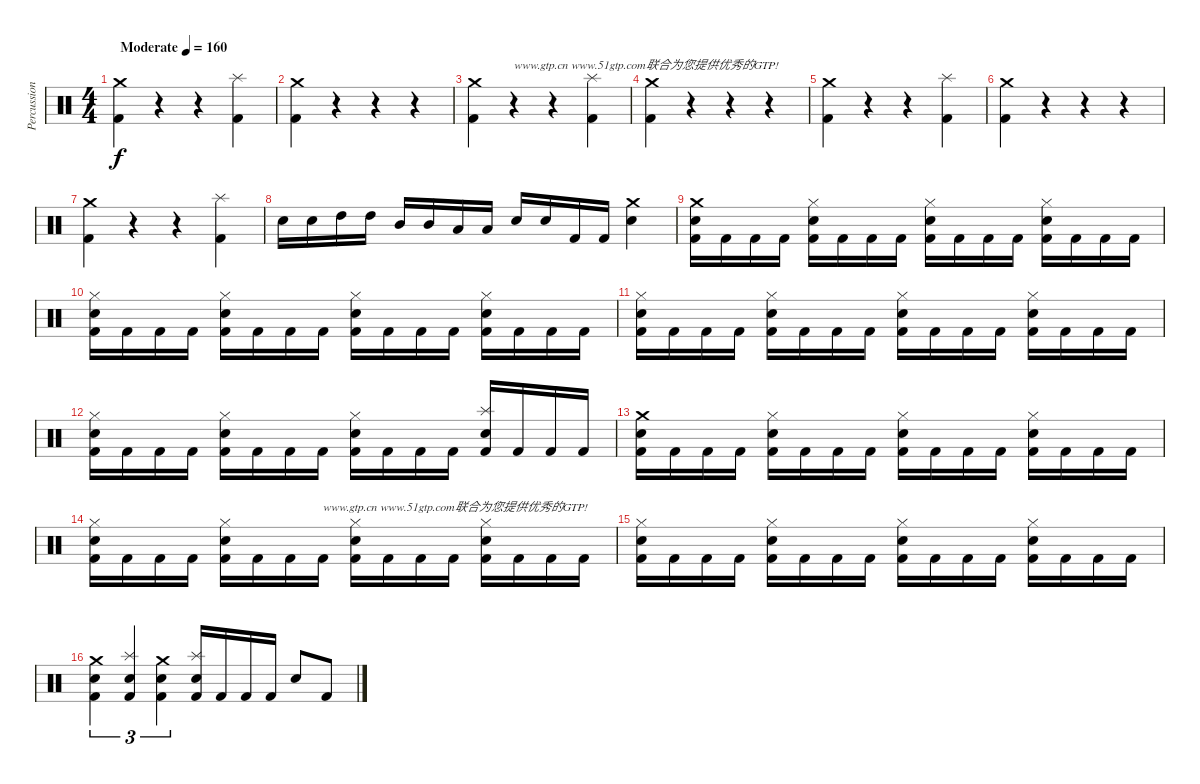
\track ("Percussion" "Percussion") {instrument percussion}
\staff {score}
\articulation defaults
\ts (4 4)
\tempo (160 "Moderate")
\clef neutral
\ks c
("Crash medium (hit)" "Kick (hit) 2").4{dy f} r.4 r.4 ("Splash (hit)" "Kick (hit) 2").4 |
("Crash medium (hit)" "Kick (hit) 2").4 r.4 r.4 r.4 |
("Crash medium (hit)" "Kick (hit) 2").4 r.4{txt "www.gtp.cn www.51gtp.com联合为您提供优秀的GTP!"} r.4 ("Splash (hit)" "Kick (hit) 2").4 |
("Crash medium (hit)" "Kick (hit) 2").4 r.4 r.4 r.4 |
("Crash medium (hit)" "Kick (hit) 2").4 r.4 r.4 ("Splash (hit)" "Kick (hit) 2").4 |
("Crash medium (hit)" "Kick (hit) 2").4 r.4 r.4 r.4 |
("Crash medium (hit)" "Kick (hit) 2").4 r.4 r.4 ("Splash (hit)" "Kick (hit) 2").4 |
"Electric Snare (hit)".16 "Electric Snare (hit)".16 "High Tom (hit)".16 "High Tom (hit)".16 "Mid Tom (hit)".16 "Mid Tom (hit)".16 "Low Tom (hit)".16 "Low Tom (hit)".16 "Electric Snare (hit)".16 "Electric Snare (hit)".16 "Kick (hit) 2".16 "Kick (hit) 2".16 ("Crash medium (hit)" "Electric Snare (hit)").4 |
("Crash medium (hit)" "Electric Snare (hit)" "Kick (hit) 2").16 "Kick (hit) 2".16 "Kick (hit) 2".16 "Kick (hit) 2".16 ("Hi-Hat (closed)" "Electric Snare (hit)" "Kick (hit) 2").16 "Kick (hit) 2".16 "Kick (hit) 2".16 "Kick (hit) 2".16 ("Hi-Hat (closed)" "Electric Snare (hit)" "Kick (hit) 2").16 "Kick (hit) 2".16 "Kick (hit) 2".16 "Kick (hit) 2".16 ("Hi-Hat (closed)" "Electric Snare (hit)" "Kick (hit) 2").16 "Kick (hit) 2".16 "Kick (hit) 2".16 "Kick (hit) 2".16 |
("Hi-Hat (closed)" "Electric Snare (hit)" "Kick (hit) 2").16 "Kick (hit) 2".16 "Kick (hit) 2".16 "Kick (hit) 2".16 ("Hi-Hat (closed)" "Electric Snare (hit)" "Kick (hit) 2").16 "Kick (hit) 2".16 "Kick (hit) 2".16 "Kick (hit) 2".16 ("Hi-Hat (closed)" "Electric Snare (hit)" "Kick (hit) 2").16 "Kick (hit) 2".16 "Kick (hit) 2".16 "Kick (hit) 2".16 ("Hi-Hat (closed)" "Electric Snare (hit)" "Kick (hit) 2").16 "Kick (hit) 2".16 "Kick (hit) 2".16 "Kick (hit) 2".16 |
("Hi-Hat (closed)" "Electric Snare (hit)" "Kick (hit) 2").16 "Kick (hit) 2".16 "Kick (hit) 2".16 "Kick (hit) 2".16 ("Hi-Hat (closed)" "Electric Snare (hit)" "Kick (hit) 2").16 "Kick (hit) 2".16 "Kick (hit) 2".16 "Kick (hit) 2".16 ("Hi-Hat (closed)" "Electric Snare (hit)" "Kick (hit) 2").16 "Kick (hit) 2".16 "Kick (hit) 2".16 "Kick (hit) 2".16 ("Hi-Hat (closed)" "Electric Snare (hit)" "Kick (hit) 2").16 "Kick (hit) 2".16 "Kick (hit) 2".16 "Kick (hit) 2".16 |
("Hi-Hat (closed)" "Electric Snare (hit)" "Kick (hit) 2").16 "Kick (hit) 2".16 "Kick (hit) 2".16 "Kick (hit) 2".16 ("Hi-Hat (closed)" "Electric Snare (hit)" "Kick (hit) 2").16 "Kick (hit) 2".16 "Kick (hit) 2".16 "Kick (hit) 2".16 ("Hi-Hat (closed)" "Electric Snare (hit)" "Kick (hit) 2").16 "Kick (hit) 2".16 "Kick (hit) 2".16 "Kick (hit) 2".16 ("Splash (hit)" "Electric Snare (hit)" "Kick (hit) 2").16 "Kick (hit) 2".16 "Kick (hit) 2".16 "Kick (hit) 2".16 |
("Crash medium (hit)" "Electric Snare (hit)" "Kick (hit) 2").16 "Kick (hit) 2".16 "Kick (hit) 2".16 "Kick (hit) 2".16 ("Hi-Hat (closed)" "Electric Snare (hit)" "Kick (hit) 2").16 "Kick (hit) 2".16 "Kick (hit) 2".16 "Kick (hit) 2".16 ("Hi-Hat (closed)" "Electric Snare (hit)" "Kick (hit) 2").16 "Kick (hit) 2".16 "Kick (hit) 2".16 "Kick (hit) 2".16 ("Hi-Hat (closed)" "Electric Snare (hit)" "Kick (hit) 2").16 "Kick (hit) 2".16 "Kick (hit) 2".16 "Kick (hit) 2".16 |
("Hi-Hat (closed)" "Electric Snare (hit)" "Kick (hit) 2").16 "Kick (hit) 2".16 "Kick (hit) 2".16 "Kick (hit) 2".16 ("Hi-Hat (closed)" "Electric Snare (hit)" "Kick (hit) 2").16 "Kick (hit) 2".16 "Kick (hit) 2".16 "Kick (hit) 2".16{txt "www.gtp.cn www.51gtp.com联合为您提供优秀的GTP!"} ("Hi-Hat (closed)" "Electric Snare (hit)" "Kick (hit) 2").16 "Kick (hit) 2".16 "Kick (hit) 2".16 "Kick (hit) 2".16 ("Hi-Hat (closed)" "Electric Snare (hit)" "Kick (hit) 2").16 "Kick (hit) 2".16 "Kick (hit) 2".16 "Kick (hit) 2".16 |
("Hi-Hat (closed)" "Electric Snare (hit)" "Kick (hit) 2").16 "Kick (hit) 2".16 "Kick (hit) 2".16 "Kick (hit) 2".16 ("Hi-Hat (closed)" "Electric Snare (hit)" "Kick (hit) 2").16 "Kick (hit) 2".16 "Kick (hit) 2".16 "Kick (hit) 2".16 ("Hi-Hat (closed)" "Electric Snare (hit)" "Kick (hit) 2").16 "Kick (hit) 2".16 "Kick (hit) 2".16 "Kick (hit) 2".16 ("Hi-Hat (closed)" "Electric Snare (hit)" "Kick (hit) 2").16 "Kick (hit) 2".16 "Kick (hit) 2".16 "Kick (hit) 2".16 |
("Crash medium (hit)" "Electric Snare (hit)" "Kick (hit) 2").4{tu (3 2)} ("Splash (hit)" "Electric Snare (hit)" "Kick (hit) 2").4{tu (3 2)} ("Crash medium (hit)" "Electric Snare (hit)" "Kick (hit) 2").4{tu (3 2)} ("Splash (hit)" "Electric Snare (hit)" "Kick (hit) 2").16 "Kick (hit) 2".16 "Kick (hit) 2".16 "Kick (hit) 2".16 "Electric Snare (hit)".8 "Kick (hit) 2".8
